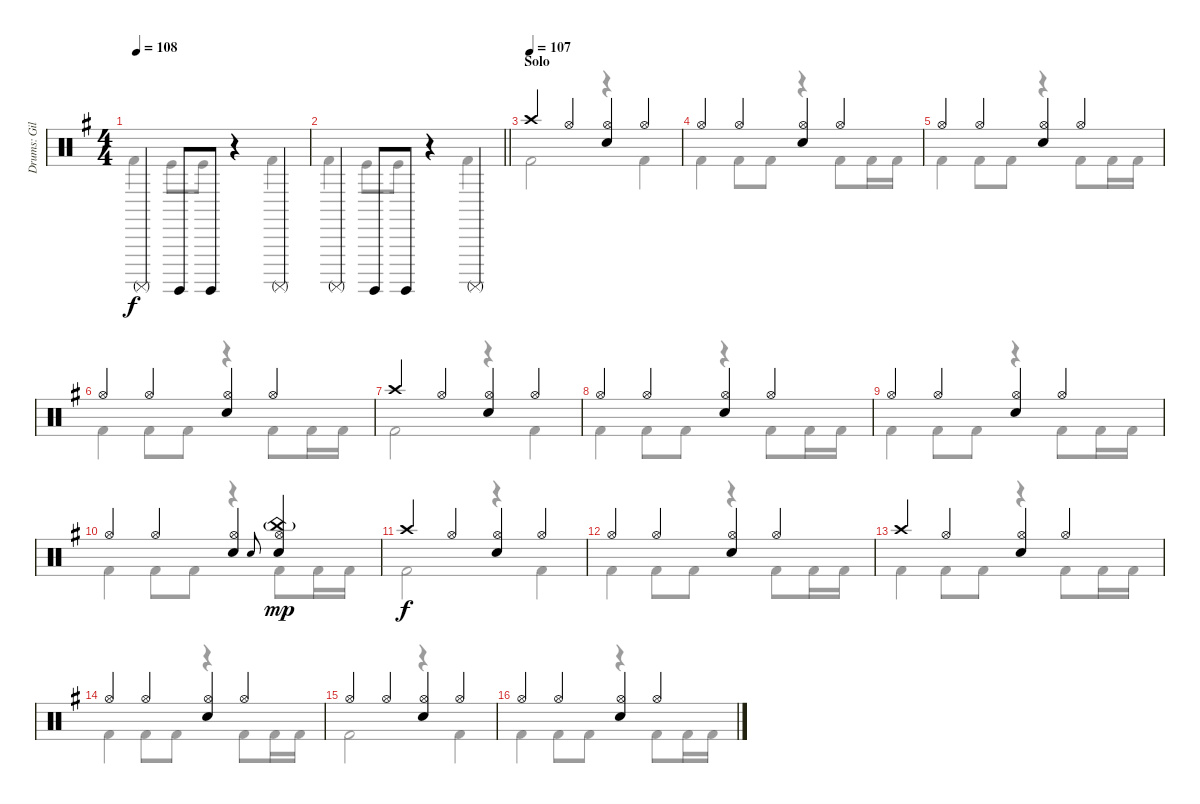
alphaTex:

\track ("Drums: Gil" "Drums: Gil") {instrument percussion}
\staff {score}
\articulation defaults
\voice
\ts (4 4)
\tempo 108
\clef neutral
\ks g "Surdo (mute)".4{dy f} "Surdo (hit)".8 "Surdo (hit)".8
r.4 "Surdo (mute)".4 |
\barLineRight lightlight "Surdo (mute)".4 "Surdo (hit)".8 "Surdo (hit)".8
r.4 "Surdo (mute)".4 |
\section ("" "Solo")
\tempo (107)
"Crash high (hit)".4 "Hi-Hat (open)".4 ("Hi-Hat (open)" "Snare (hit) 2").4 "Hi-Hat (open)".4 |
"Hi-Hat (open)".4 "Hi-Hat (open)".4 ("Hi-Hat (open)" "Snare (hit) 2").4 "Hi-Hat (open)".4 |
"Hi-Hat (open)".4 "Hi-Hat (open)".4 ("Hi-Hat (open)" "Snare (hit) 2").4 "Hi-Hat (open)".4 |
"Hi-Hat (open)".4 "Hi-Hat (open)".4 ("Hi-Hat (open)" "Snare (hit) 2").4 "Hi-Hat (open)".4 |
"Crash high (hit)".4 "Hi-Hat (open)".4 ("Hi-Hat (open)" "Snare (hit) 2").4 "Hi-Hat (open)".4 |
"Hi-Hat (open)".4 "Hi-Hat (open)".4 ("Hi-Hat (open)" "Snare (hit) 2").4 "Hi-Hat (open)".4 |
"Hi-Hat (open)".4 "Hi-Hat (open)".4 ("Hi-Hat (open)" "Snare (hit) 2").4 "Hi-Hat (open)".4 |
"Hi-Hat (open)".4 "Hi-Hat (open)".4 ("Hi-Hat (open)" "Snare (hit) 2").4 "Electric Snare (hit)".8{gr onbeat} ("China (hit)"{g} "Hi-Hat (open)" "Snare (hit) 2").4{dy mp} |
"Crash high (hit)".4{dy f} "Hi-Hat (open)".4 ("Hi-Hat (open)" "Snare (hit) 2").4 "Hi-Hat (open)".4 |
"Hi-Hat (open)".4 "Hi-Hat (open)".4 ("Hi-Hat (open)" "Snare (hit) 2").4 "Hi-Hat (open)".4 |
"Crash high (hit)".4 "Hi-Hat (open)".4 ("Hi-Hat (open)" "Snare (hit) 2").4 "Hi-Hat (open)".4 |
"Hi-Hat (open)".4 "Hi-Hat (open)".4 ("Hi-Hat (open)" "Snare (hit) 2").4 "Hi-Hat (open)".4 |
"Hi-Hat (open)".4 "Hi-Hat (open)".4 ("Hi-Hat (open)" "Snare (hit) 2").4 "Hi-Hat (open)".4 |
"Hi-Hat (open)".4 "Hi-Hat (open)".4 ("Hi-Hat (open)" "Snare (hit) 2").4 "Hi-Hat (open)".4
\voice
\clef neutral
\ottava regular
\simile none
\ks g "Kick (hit) 2".4{dy f} "Kick (hit)".8 "Kick (hit)".8
r.4 "Kick (hit) 2".4 |
\barLineRight lightlight "Kick (hit) 2".4 "Kick (hit)".8 "Kick (hit)".8
r.4 "Kick (hit) 2".4 |
"Kick (hit) 2".2 r.4 "Kick (hit) 2".4 |
"Kick (hit) 2".4 "Kick (hit) 2".8 "Kick (hit) 2".8 r.4 "Kick (hit) 2".8 "Kick (hit) 2".16 "Kick (hit) 2".16 |
"Kick (hit) 2".4 "Kick (hit) 2".8 "Kick (hit) 2".8 r.4 "Kick (hit) 2".8 "Kick (hit) 2".16 "Kick (hit) 2".16 |
"Kick (hit) 2".4 "Kick (hit) 2".8 "Kick (hit) 2".8 r.4 "Kick (hit) 2".8 "Kick (hit) 2".16 "Kick (hit) 2".16 |
"Kick (hit) 2".2 r.4 "Kick (hit) 2".4 |
"Kick (hit) 2".4 "Kick (hit) 2".8 "Kick (hit) 2".8 r.4 "Kick (hit) 2".8 "Kick (hit) 2".16 "Kick (hit) 2".16 |
"Kick (hit) 2".4 "Kick (hit) 2".8 "Kick (hit) 2".8 r.4 "Kick (hit) 2".8 "Kick (hit) 2".16 "Kick (hit) 2".16 |
"Kick (hit) 2".4 "Kick (hit) 2".8 "Kick (hit) 2".8 r.4 "Kick (hit) 2".8 "Kick (hit) 2".16 "Kick (hit) 2".16 |
"Kick (hit) 2".2 r.4 "Kick (hit) 2".4 |
"Kick (hit) 2".4 "Kick (hit) 2".8 "Kick (hit) 2".8 r.4 "Kick (hit) 2".8 "Kick (hit) 2".16 "Kick (hit) 2".16 |
"Kick (hit) 2".4 "Kick (hit) 2".8 "Kick (hit) 2".8 r.4 "Kick (hit) 2".8 "Kick (hit) 2".16 "Kick (hit) 2".16 |
"Kick (hit) 2".4 "Kick (hit) 2".8 "Kick (hit) 2".8 r.4 "Kick (hit) 2".8 "Kick (hit) 2".16 "Kick (hit) 2".16 |
"Kick (hit) 2".2 r.4 "Kick (hit) 2".4 |
"Kick (hit) 2".4 "Kick (hit) 2".8 "Kick (hit) 2".8 r.4 "Kick (hit) 2".8 "Kick (hit) 2".16 "Kick (hit) 2".16
